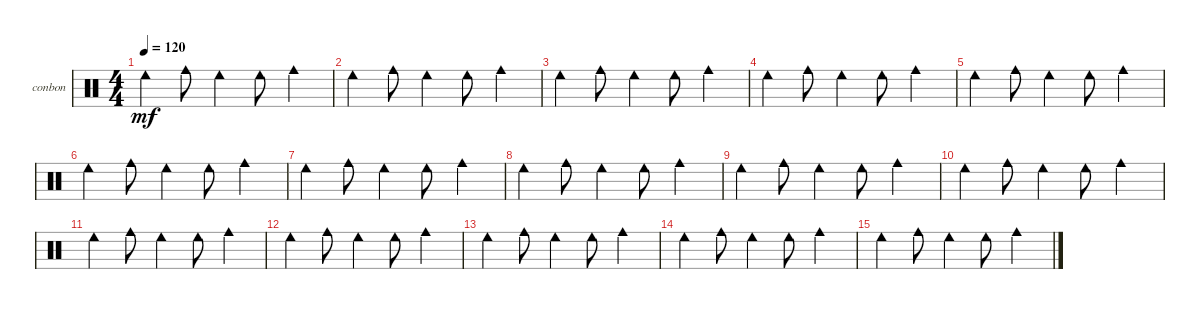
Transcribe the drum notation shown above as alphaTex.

\bracketExtendMode groupsimilarinstruments
\firstSystemTrackNameOrientation horizontal
\otherSystemsTrackNameOrientation horizontal
\track ("Bongos N Congas" "conbon") {instrument percussion}
\staff {score}
\articulation defaults
\ts (4 4)
\tempo 120
\clef neutral
\ks c "Cowbell low (hit)".4{dy mf} "Cowbell medium (hit)".8 "Cowbell low (hit)".4 "Cowbell low (hit)".8 "Cowbell medium (hit)".4
|
"Cowbell low (hit)".4 "Cowbell medium (hit)".8 "Cowbell low (hit)".4 "Cowbell low (hit)".8 "Cowbell medium (hit)".4 |
"Cowbell low (hit)".4 "Cowbell medium (hit)".8 "Cowbell low (hit)".4 "Cowbell low (hit)".8 "Cowbell medium (hit)".4 |
"Cowbell low (hit)".4 "Cowbell medium (hit)".8 "Cowbell low (hit)".4 "Cowbell low (hit)".8 "Cowbell medium (hit)".4 |
"Cowbell low (hit)".4 "Cowbell medium (hit)".8 "Cowbell low (hit)".4 "Cowbell low (hit)".8 "Cowbell medium (hit)".4 |
"Cowbell low (hit)".4 "Cowbell medium (hit)".8 "Cowbell low (hit)".4 "Cowbell low (hit)".8 "Cowbell medium (hit)".4 |
"Cowbell low (hit)".4 "Cowbell medium (hit)".8 "Cowbell low (hit)".4 "Cowbell low (hit)".8 "Cowbell medium (hit)".4 |
"Cowbell low (hit)".4 "Cowbell medium (hit)".8 "Cowbell low (hit)".4 "Cowbell low (hit)".8 "Cowbell medium (hit)".4 |
"Cowbell low (hit)".4 "Cowbell medium (hit)".8 "Cowbell low (hit)".4 "Cowbell low (hit)".8 "Cowbell medium (hit)".4 |
"Cowbell low (hit)".4 "Cowbell medium (hit)".8 "Cowbell low (hit)".4 "Cowbell low (hit)".8 "Cowbell medium (hit)".4 |
"Cowbell low (hit)".4 "Cowbell medium (hit)".8 "Cowbell low (hit)".4 "Cowbell low (hit)".8 "Cowbell medium (hit)".4 |
"Cowbell low (hit)".4 "Cowbell medium (hit)".8 "Cowbell low (hit)".4 "Cowbell low (hit)".8 "Cowbell medium (hit)".4 |
"Cowbell low (hit)".4 "Cowbell medium (hit)".8 "Cowbell low (hit)".4 "Cowbell low (hit)".8 "Cowbell medium (hit)".4 |
"Cowbell low (hit)".4 "Cowbell medium (hit)".8 "Cowbell low (hit)".4 "Cowbell low (hit)".8 "Cowbell medium (hit)".4 |
"Cowbell low (hit)".4 "Cowbell medium (hit)".8 "Cowbell low (hit)".4 "Cowbell low (hit)".8 "Cowbell medium (hit)".4
